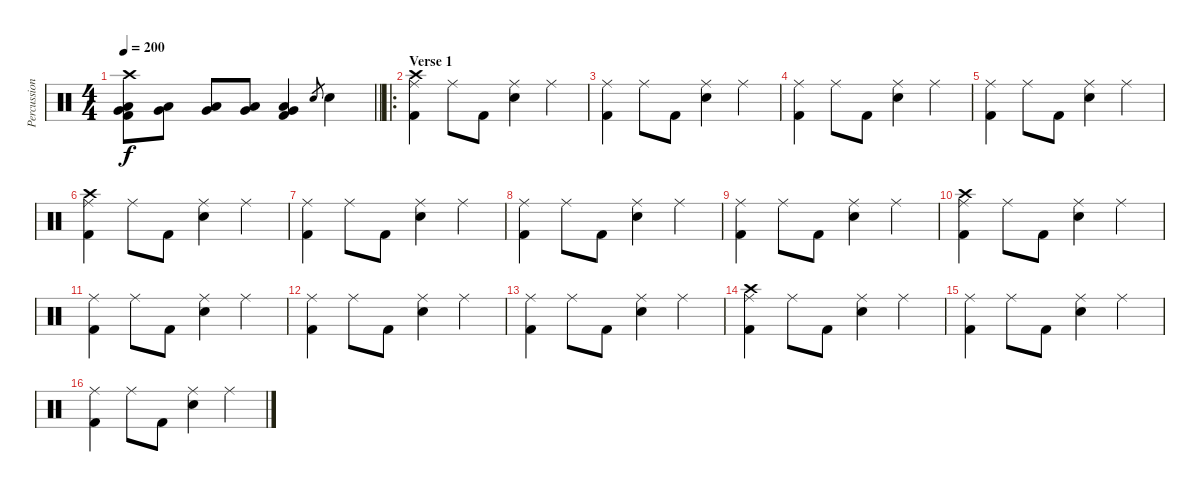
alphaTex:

\track ("Percussion" "Percussion") {instrument percussion}
\staff {score}
\articulation defaults
\ts (4 4)
\tempo 200
\clef neutral
\barLineRight lightlight
\ks c
("Crash high (hit)" "Low Tom (hit)" "Very Low Tom (hit)" "Kick (hit) 2").8{dy f} ("Low Tom (hit)" "Very Low Tom (hit)").8 ("Low Tom (hit)" "Very Low Tom (hit)").8 ("Low Tom (hit)" "Very Low Tom (hit)").8 ("Low Tom (hit)" "Very Low Tom (hit)" "Kick (hit) 2").4 "Snare (hit) 2".8{gr} "Snare (hit) 2".4 |
\ro
\section ("" "Verse 1")
("Crash high (hit)" "Ride (middle)" "Kick (hit) 2").4 "Ride (middle)".8 "Kick (hit) 2".8 ("Ride (middle)" "Snare (hit) 2").4 "Ride (middle)".4 |
("Ride (middle)" "Kick (hit) 2").4 "Ride (middle)".8 "Kick (hit) 2".8 ("Ride (middle)" "Snare (hit) 2").4 "Ride (middle)".4 |
("Ride (middle)" "Kick (hit) 2").4 "Ride (middle)".8 "Kick (hit) 2".8 ("Ride (middle)" "Snare (hit) 2").4 "Ride (middle)".4 |
("Ride (middle)" "Kick (hit) 2").4 "Ride (middle)".8 "Kick (hit) 2".8 ("Ride (middle)" "Snare (hit) 2").4 "Ride (middle)".4 |
("Crash high (hit)" "Ride (middle)" "Kick (hit) 2").4 "Ride (middle)".8 "Kick (hit) 2".8 ("Ride (middle)" "Snare (hit) 2").4 "Ride (middle)".4 |
("Ride (middle)" "Kick (hit) 2").4 "Ride (middle)".8 "Kick (hit) 2".8 ("Ride (middle)" "Snare (hit) 2").4 "Ride (middle)".4 |
("Ride (middle)" "Kick (hit) 2").4 "Ride (middle)".8 "Kick (hit) 2".8 ("Ride (middle)" "Snare (hit) 2").4 "Ride (middle)".4 |
("Ride (middle)" "Kick (hit) 2").4 "Ride (middle)".8 "Kick (hit) 2".8 ("Ride (middle)" "Snare (hit) 2").4 "Ride (middle)".4 |
("Crash high (hit)" "Ride (middle)" "Kick (hit) 2").4 "Ride (middle)".8 "Kick (hit) 2".8 ("Ride (middle)" "Snare (hit) 2").4 "Ride (middle)".4 |
("Ride (middle)" "Kick (hit) 2").4 "Ride (middle)".8 "Kick (hit) 2".8 ("Ride (middle)" "Snare (hit) 2").4 "Ride (middle)".4 |
("Ride (middle)" "Kick (hit) 2").4 "Ride (middle)".8 "Kick (hit) 2".8 ("Ride (middle)" "Snare (hit) 2").4 "Ride (middle)".4 |
("Ride (middle)" "Kick (hit) 2").4 "Ride (middle)".8 "Kick (hit) 2".8 ("Ride (middle)" "Snare (hit) 2").4 "Ride (middle)".4 |
("Crash high (hit)" "Ride (middle)" "Kick (hit) 2").4 "Ride (middle)".8 "Kick (hit) 2".8 ("Ride (middle)" "Snare (hit) 2").4 "Ride (middle)".4 |
("Ride (middle)" "Kick (hit) 2").4 "Ride (middle)".8 "Kick (hit) 2".8 ("Ride (middle)" "Snare (hit) 2").4 "Ride (middle)".4 |
("Ride (middle)" "Kick (hit) 2").4 "Ride (middle)".8 "Kick (hit) 2".8 ("Ride (middle)" "Snare (hit) 2").4 "Ride (middle)".4
